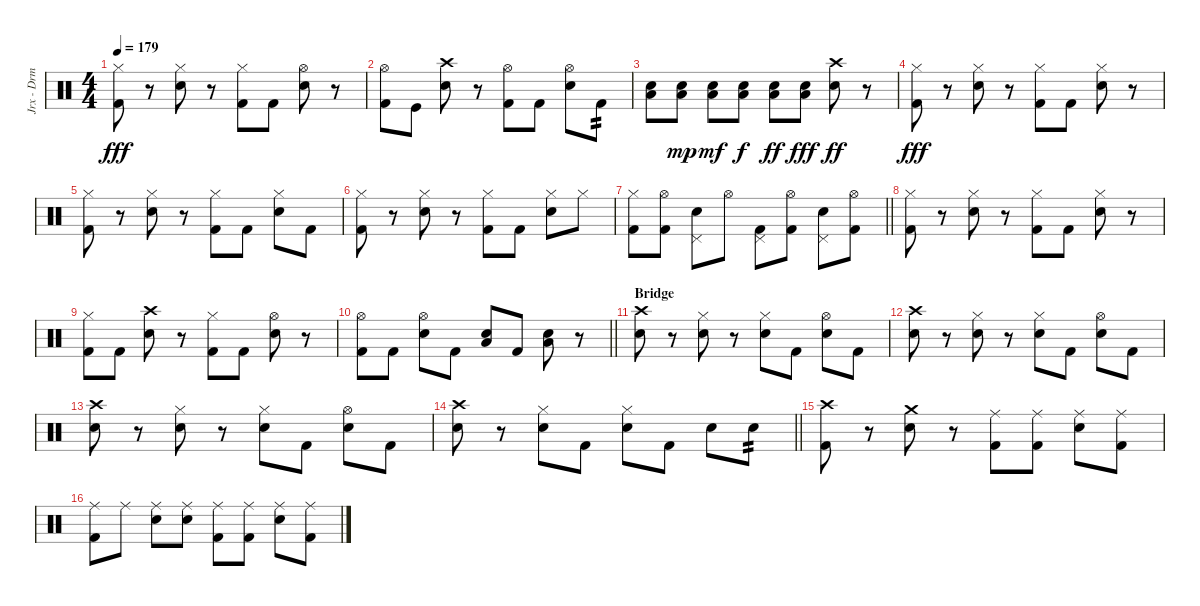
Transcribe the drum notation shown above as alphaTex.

\track ("Jrx - Drm" "Jrx - Drm") {instrument percussion}
\staff {score}
\articulation defaults
\ts (4 4)
\tempo 179
\clef neutral
\ks c
("Hi-Hat (closed)" "Kick (hit) 2").8{dy fff} r.8 ("Hi-Hat (closed)" "Snare (hit) 2").8 r.8 ("Hi-Hat (closed)" "Kick (hit) 2").8 "Kick (hit) 2".8 ("Hi-Hat (open)" "Snare (hit) 2").8 r.8 |
("Hi-Hat (open)" "Kick (hit) 2").8 "Kick (hit)".8 ("Snare (hit) 2" "Crash high (hit)").8 r.8 ("Hi-Hat (open)" "Kick (hit) 2").8 "Kick (hit) 2".8 ("Hi-Hat (open)" "Snare (hit) 2").8 "Kick (hit) 2".8{tp 2} |
("Snare (hit) 2" "Low Floor Tom (hit)").8 ("Snare (hit) 2" "Low Floor Tom (hit)").8{dy mp} ("Snare (hit) 2" "Low Floor Tom (hit)").8{dy mf} ("Snare (hit) 2" "Low Floor Tom (hit)").8{dy f} ("Snare (hit) 2" "Low Floor Tom (hit)").8{dy ff} ("Snare (hit) 2" "Low Floor Tom (hit)").8{dy fff} ("Snare (hit) 2" "Crash high (hit)").8{dy ff} r.8 |
("Hi-Hat (closed)" "Kick (hit) 2").8{dy fff} r.8 ("Hi-Hat (closed)" "Snare (hit) 2").8 r.8 ("Hi-Hat (closed)" "Kick (hit) 2").8 "Kick (hit) 2".8 ("Hi-Hat (closed)" "Snare (hit) 2").8 r.8 |
("Hi-Hat (closed)" "Kick (hit) 2").8 r.8 ("Hi-Hat (closed)" "Snare (hit) 2").8 r.8 ("Hi-Hat (closed)" "Kick (hit) 2").8 "Kick (hit) 2".8 ("Hi-Hat (closed)" "Snare (hit) 2").8 "Kick (hit) 2".8 |
("Hi-Hat (closed)" "Kick (hit) 2").8 r.8 ("Hi-Hat (closed)" "Snare (hit) 2").8 r.8 ("Hi-Hat (closed)" "Kick (hit) 2").8 "Kick (hit) 2".8 ("Hi-Hat (closed)" "Snare (hit) 2").8 "Hi-Hat (closed)".8 |
\barLineRight lightlight
("Hi-Hat (closed)" "Kick (hit) 2").8 ("Hi-Hat (open)" "Kick (hit) 2").8 ("Pedal Hi-Hat (hit)" "Snare (hit) 2").8 "Hi-Hat (open)".8 ("Pedal Hi-Hat (hit)" "Kick (hit) 2").8 ("Hi-Hat (open)" "Kick (hit) 2").8 ("Pedal Hi-Hat (hit)" "Snare (hit) 2").8 ("Hi-Hat (open)" "Kick (hit) 2").8 |
("Hi-Hat (closed)" "Kick (hit) 2").8 r.8 ("Hi-Hat (closed)" "Snare (hit) 2").8 r.8 ("Hi-Hat (closed)" "Kick (hit) 2").8 "Kick (hit) 2".8 ("Hi-Hat (closed)" "Snare (hit) 2").8 r.8 |
("Hi-Hat (closed)" "Kick (hit) 2").8 "Kick (hit) 2".8 ("Snare (hit) 2" "Crash high (hit)").8 r.8 ("Hi-Hat (closed)" "Kick (hit) 2").8 "Kick (hit) 2".8 ("Hi-Hat (open)" "Snare (hit) 2").8 r.8 |
\barLineRight lightlight
("Hi-Hat (open)" "Kick (hit) 2").8 "Kick (hit) 2".8 ("Hi-Hat (open)" "Snare (hit) 2").8 "Kick (hit) 2".8 ("Snare (hit) 2" "Low Floor Tom (hit)").8 "Kick (hit) 2".8 ("Snare (hit) 2" "Low Floor Tom (hit)").8 r.8 |
\section ("" "Bridge")
("Snare (hit) 2" "Crash high (hit)").8 r.8 ("Hi-Hat (closed)" "Snare (hit) 2").8 r.8 ("Hi-Hat (closed)" "Snare (hit) 2").8 "Kick (hit) 2".8 ("Hi-Hat (open)" "Snare (hit) 2").8 "Kick (hit) 2".8 |
("Snare (hit) 2" "Crash high (hit)").8 r.8 ("Hi-Hat (closed)" "Snare (hit) 2").8 r.8 ("Hi-Hat (closed)" "Snare (hit) 2").8 "Kick (hit) 2".8 ("Hi-Hat (open)" "Snare (hit) 2").8 "Kick (hit) 2".8 |
("Snare (hit) 2" "Crash high (hit)").8 r.8 ("Hi-Hat (closed)" "Snare (hit) 2").8 r.8 ("Hi-Hat (closed)" "Snare (hit) 2").8 "Kick (hit) 2".8 ("Hi-Hat (open)" "Snare (hit) 2").8 "Kick (hit) 2".8 |
\barLineRight lightlight
("Snare (hit) 2" "Crash high (hit)").8 r.8 ("Hi-Hat (closed)" "Snare (hit) 2").8 "Kick (hit) 2".8 ("Hi-Hat (closed)" "Snare (hit) 2").8 "Kick (hit) 2".8 "Snare (hit) 2".8 "Snare (hit) 2".8{tp 2} |
("Kick (hit) 2" "Crash high (hit)").8 r.8 ("Snare (hit) 2" "Crash medium (hit)").8 r.8 ("Kick (hit) 2" "Ride (middle)").8 ("Kick (hit) 2" "Ride (middle)").8 ("Snare (hit) 2" "Ride (middle)").8 ("Kick (hit) 2" "Ride (middle)").8 |
("Kick (hit) 2" "Ride (middle)").8 "Ride (middle)".8 ("Snare (hit) 2" "Ride (middle)").8 ("Snare (hit) 2" "Ride (middle)").8 ("Kick (hit) 2" "Ride (middle)").8 ("Kick (hit) 2" "Ride (middle)").8 ("Snare (hit) 2" "Ride (middle)").8 ("Kick (hit) 2" "Ride (middle)").8
